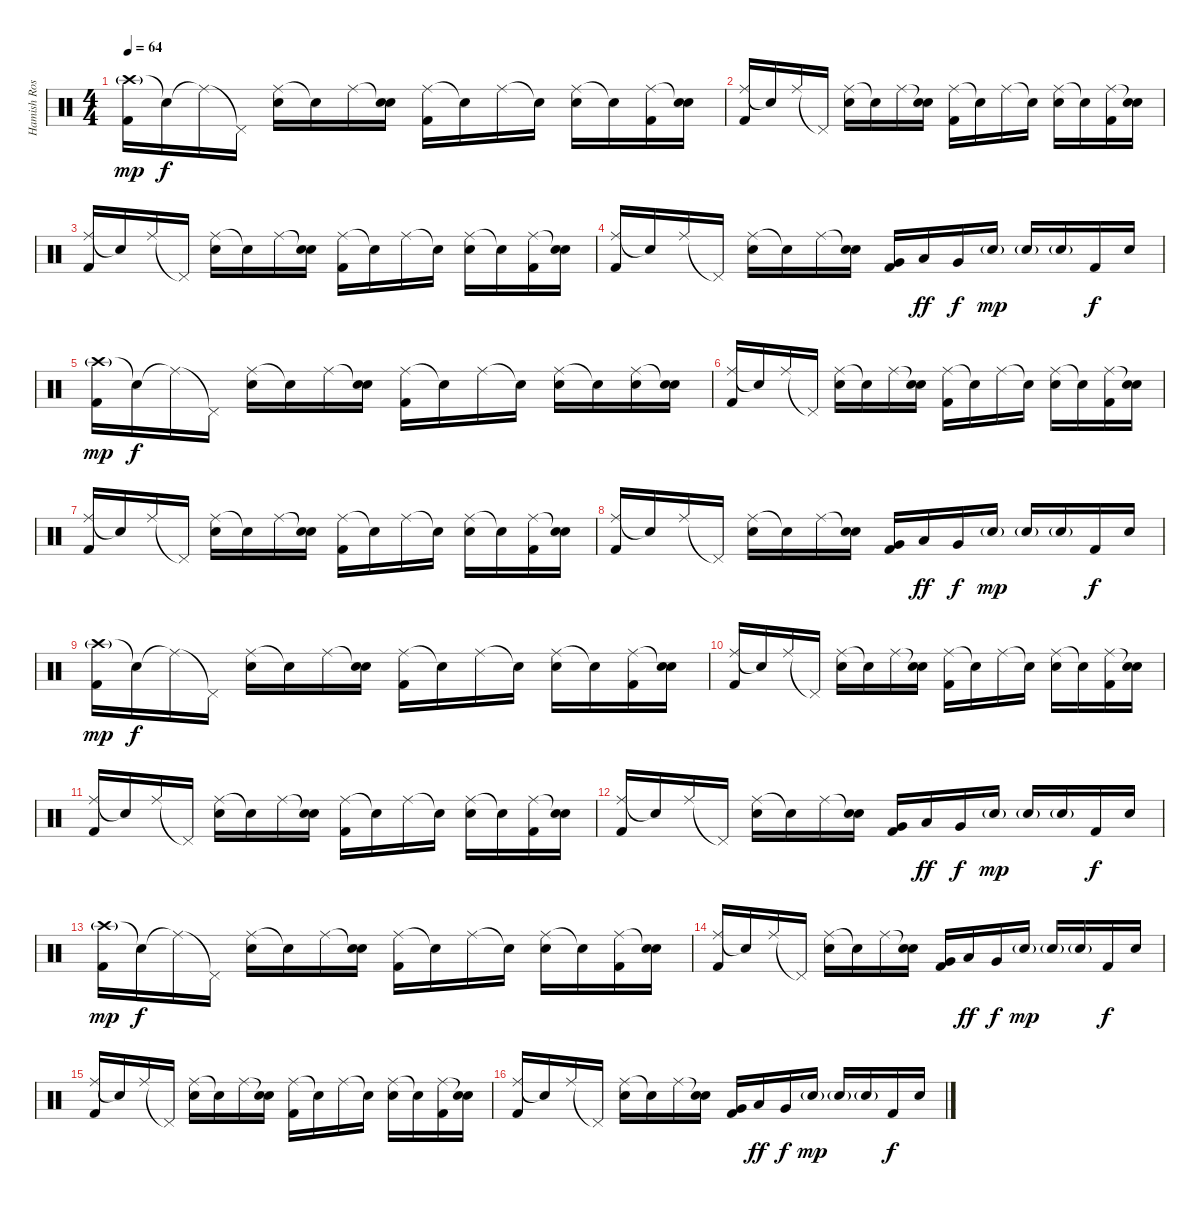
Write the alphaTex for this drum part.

\track ("Hamish Rosser" "Hamish Ros") {instrument percussion}
\staff {score}
\articulation defaults
\ts (4 4)
\tempo 64
\clef neutral
\ks c
("Crash high (hit)"{g} "Kick (hit) 2").16{dy mp} "Snare (hit)"{t}.16{dy f} "Ride (middle)"{t}.16 "Pedal Hi-Hat (hit)"{t}.16 ("Ride (middle)" "Electric Snare (hit)").16 "Snare (hit)"{t}.16 "Ride (middle)".16 ("Snare (hit)"{t} "Electric Snare (hit)").16 ("Ride (middle)" "Kick (hit) 2").16 "Snare (hit)"{t}.16 "Ride (middle)".16 "Snare (hit)"{t}.16 ("Ride (middle)" "Electric Snare (hit)").16 "Snare (hit)"{t}.16 ("Ride (middle)" "Kick (hit) 2").16 ("Snare (hit)"{t} "Electric Snare (hit)").16 |
("Ride (middle)" "Kick (hit) 2").16 "Snare (hit)"{t}.16 "Ride (middle)".16 "Pedal Hi-Hat (hit)"{t}.16 ("Ride (middle)" "Electric Snare (hit)").16 "Snare (hit)"{t}.16 "Ride (middle)".16 ("Snare (hit)"{t} "Electric Snare (hit)").16 ("Ride (middle)" "Kick (hit) 2").16 "Snare (hit)"{t}.16 "Ride (middle)".16 "Snare (hit)"{t}.16 ("Ride (middle)" "Electric Snare (hit)").16 "Snare (hit)"{t}.16 ("Ride (middle)" "Kick (hit) 2").16 ("Snare (hit)"{t} "Electric Snare (hit)").16 |
("Ride (middle)" "Kick (hit) 2").16 "Snare (hit)"{t}.16 "Ride (middle)".16 "Pedal Hi-Hat (hit)"{t}.16 ("Ride (middle)" "Electric Snare (hit)").16 "Snare (hit)"{t}.16 "Ride (middle)".16 ("Snare (hit)"{t} "Electric Snare (hit)").16 ("Ride (middle)" "Kick (hit) 2").16 "Snare (hit)"{t}.16 "Ride (middle)".16 "Snare (hit)"{t}.16 ("Ride (middle)" "Electric Snare (hit)").16 "Snare (hit)"{t}.16 ("Ride (middle)" "Kick (hit) 2").16 ("Snare (hit)"{t} "Electric Snare (hit)").16 |
("Ride (middle)" "Kick (hit) 2").16 "Snare (hit)"{t}.16 "Ride (middle)".16 "Pedal Hi-Hat (hit)"{t}.16 ("Ride (middle)" "Electric Snare (hit)").16 "Snare (hit)"{t}.16 "Ride (middle)".16 ("Snare (hit)"{t} "Electric Snare (hit)").16 ("Very Low Tom (hit)" "Kick (hit) 2").16 "Low Tom (hit)".16{dy ff} "Very Low Tom (hit)".16{dy f} "Electric Snare (hit)"{g}.16{dy mp} "Electric Snare (hit)"{g}.16 "Electric Snare (hit)"{g}.16 "Kick (hit) 2".16{dy f} "Electric Snare (hit)".16 |
("Crash high (hit)"{g} "Kick (hit) 2").16{dy mp} "Snare (hit)"{t}.16{dy f} "Ride (middle)"{t}.16 "Pedal Hi-Hat (hit)"{t}.16 ("Ride (middle)" "Electric Snare (hit)").16 "Snare (hit)"{t}.16 "Ride (middle)".16 ("Snare (hit)"{t} "Electric Snare (hit)").16 ("Ride (middle)" "Kick (hit) 2").16 "Snare (hit)"{t}.16 "Ride (middle)".16 "Snare (hit)"{t}.16 ("Ride (middle)" "Electric Snare (hit)").16 "Snare (hit)"{t}.16 ("Ride (middle)" "Electric Snare (hit)").16 ("Snare (hit)"{t} "Electric Snare (hit)").16 |
("Ride (middle)" "Kick (hit) 2").16 "Snare (hit)"{t}.16 "Ride (middle)".16 "Pedal Hi-Hat (hit)"{t}.16 ("Ride (middle)" "Electric Snare (hit)").16 "Snare (hit)"{t}.16 "Ride (middle)".16 ("Snare (hit)"{t} "Electric Snare (hit)").16 ("Ride (middle)" "Kick (hit) 2").16 "Snare (hit)"{t}.16 "Ride (middle)".16 "Snare (hit)"{t}.16 ("Ride (middle)" "Electric Snare (hit)").16 "Snare (hit)"{t}.16 ("Ride (middle)" "Kick (hit) 2").16 ("Snare (hit)"{t} "Electric Snare (hit)").16 |
("Ride (middle)" "Kick (hit) 2").16 "Snare (hit)"{t}.16 "Ride (middle)".16 "Pedal Hi-Hat (hit)"{t}.16 ("Ride (middle)" "Electric Snare (hit)").16 "Snare (hit)"{t}.16 "Ride (middle)".16 ("Snare (hit)"{t} "Electric Snare (hit)").16 ("Ride (middle)" "Kick (hit) 2").16 "Snare (hit)"{t}.16 "Ride (middle)".16 "Snare (hit)"{t}.16 ("Ride (middle)" "Electric Snare (hit)").16 "Snare (hit)"{t}.16 ("Ride (middle)" "Kick (hit) 2").16 ("Snare (hit)"{t} "Electric Snare (hit)").16 |
("Ride (middle)" "Kick (hit) 2").16 "Snare (hit)"{t}.16 "Ride (middle)".16 "Pedal Hi-Hat (hit)"{t}.16 ("Ride (middle)" "Electric Snare (hit)").16 "Snare (hit)"{t}.16 "Ride (middle)".16 ("Snare (hit)"{t} "Electric Snare (hit)").16 ("Very Low Tom (hit)" "Kick (hit) 2").16 "Low Tom (hit)".16{dy ff} "Very Low Tom (hit)".16{dy f} "Electric Snare (hit)"{g}.16{dy mp} "Electric Snare (hit)"{g}.16 "Electric Snare (hit)"{g}.16 "Kick (hit) 2".16{dy f} "Electric Snare (hit)".16 |
("Crash high (hit)"{g} "Kick (hit) 2").16{dy mp} "Snare (hit)"{t}.16{dy f} "Ride (middle)"{t}.16 "Pedal Hi-Hat (hit)"{t}.16 ("Ride (middle)" "Electric Snare (hit)").16 "Snare (hit)"{t}.16 "Ride (middle)".16 ("Snare (hit)"{t} "Electric Snare (hit)").16 ("Ride (middle)" "Kick (hit) 2").16 "Snare (hit)"{t}.16 "Ride (middle)".16 "Snare (hit)"{t}.16 ("Ride (middle)" "Electric Snare (hit)").16 "Snare (hit)"{t}.16 ("Ride (middle)" "Kick (hit) 2").16 ("Snare (hit)"{t} "Electric Snare (hit)").16 |
("Ride (middle)" "Kick (hit) 2").16 "Snare (hit)"{t}.16 "Ride (middle)".16 "Pedal Hi-Hat (hit)"{t}.16 ("Ride (middle)" "Electric Snare (hit)").16 "Snare (hit)"{t}.16 "Ride (middle)".16 ("Snare (hit)"{t} "Electric Snare (hit)").16 ("Ride (middle)" "Kick (hit) 2").16 "Snare (hit)"{t}.16 "Ride (middle)".16 "Snare (hit)"{t}.16 ("Ride (middle)" "Electric Snare (hit)").16 "Snare (hit)"{t}.16 ("Ride (middle)" "Kick (hit) 2").16 ("Snare (hit)"{t} "Electric Snare (hit)").16 |
("Ride (middle)" "Kick (hit) 2").16 "Snare (hit)"{t}.16 "Ride (middle)".16 "Pedal Hi-Hat (hit)"{t}.16 ("Ride (middle)" "Electric Snare (hit)").16 "Snare (hit)"{t}.16 "Ride (middle)".16 ("Snare (hit)"{t} "Electric Snare (hit)").16 ("Ride (middle)" "Kick (hit) 2").16 "Snare (hit)"{t}.16 "Ride (middle)".16 "Snare (hit)"{t}.16 ("Ride (middle)" "Electric Snare (hit)").16 "Snare (hit)"{t}.16 ("Ride (middle)" "Kick (hit) 2").16 ("Snare (hit)"{t} "Electric Snare (hit)").16 |
("Ride (middle)" "Kick (hit) 2").16 "Snare (hit)"{t}.16 "Ride (middle)".16 "Pedal Hi-Hat (hit)"{t}.16 ("Ride (middle)" "Electric Snare (hit)").16 "Snare (hit)"{t}.16 "Ride (middle)".16 ("Snare (hit)"{t} "Electric Snare (hit)").16 ("Very Low Tom (hit)" "Kick (hit) 2").16 "Low Tom (hit)".16{dy ff} "Very Low Tom (hit)".16{dy f} "Electric Snare (hit)"{g}.16{dy mp} "Electric Snare (hit)"{g}.16 "Electric Snare (hit)"{g}.16 "Kick (hit) 2".16{dy f} "Electric Snare (hit)".16 |
("Crash high (hit)"{g} "Kick (hit) 2").16{dy mp} "Snare (hit)"{t}.16{dy f} "Ride (middle)"{t}.16 "Pedal Hi-Hat (hit)"{t}.16 ("Ride (middle)" "Electric Snare (hit)").16 "Snare (hit)"{t}.16 "Ride (middle)".16 ("Snare (hit)"{t} "Electric Snare (hit)").16 ("Ride (middle)" "Kick (hit) 2").16 "Snare (hit)"{t}.16 "Ride (middle)".16 "Snare (hit)"{t}.16 ("Ride (middle)" "Electric Snare (hit)").16 "Snare (hit)"{t}.16 ("Ride (middle)" "Kick (hit) 2").16 ("Snare (hit)"{t} "Electric Snare (hit)").16 |
("Ride (middle)" "Kick (hit) 2").16 "Snare (hit)"{t}.16 "Ride (middle)".16 "Pedal Hi-Hat (hit)"{t}.16 ("Ride (middle)" "Electric Snare (hit)").16 "Snare (hit)"{t}.16 "Ride (middle)".16 ("Snare (hit)"{t} "Electric Snare (hit)").16 ("Very Low Tom (hit)" "Kick (hit) 2").16 "Low Tom (hit)".16{dy ff} "Very Low Tom (hit)".16{dy f} "Electric Snare (hit)"{g}.16{dy mp} "Electric Snare (hit)"{g}.16 "Electric Snare (hit)"{g}.16 "Kick (hit) 2".16{dy f} "Electric Snare (hit)".16 |
("Ride (middle)" "Kick (hit) 2").16 "Snare (hit)"{t}.16 "Ride (middle)".16 "Pedal Hi-Hat (hit)"{t}.16 ("Ride (middle)" "Electric Snare (hit)").16 "Snare (hit)"{t}.16 "Ride (middle)".16 ("Snare (hit)"{t} "Electric Snare (hit)").16 ("Ride (middle)" "Kick (hit) 2").16 "Snare (hit)"{t}.16 "Ride (middle)".16 "Snare (hit)"{t}.16 ("Ride (middle)" "Electric Snare (hit)").16 "Snare (hit)"{t}.16 ("Ride (middle)" "Kick (hit) 2").16 ("Snare (hit)"{t} "Electric Snare (hit)").16 |
("Ride (middle)" "Kick (hit) 2").16 "Snare (hit)"{t}.16 "Ride (middle)".16 "Pedal Hi-Hat (hit)"{t}.16 ("Ride (middle)" "Electric Snare (hit)").16 "Snare (hit)"{t}.16 "Ride (middle)".16 ("Snare (hit)"{t} "Electric Snare (hit)").16 ("Very Low Tom (hit)" "Kick (hit) 2").16 "Low Tom (hit)".16{dy ff} "Very Low Tom (hit)".16{dy f} "Electric Snare (hit)"{g}.16{dy mp} "Electric Snare (hit)"{g}.16 "Electric Snare (hit)"{g}.16 "Kick (hit) 2".16{dy f} "Electric Snare (hit)".16
